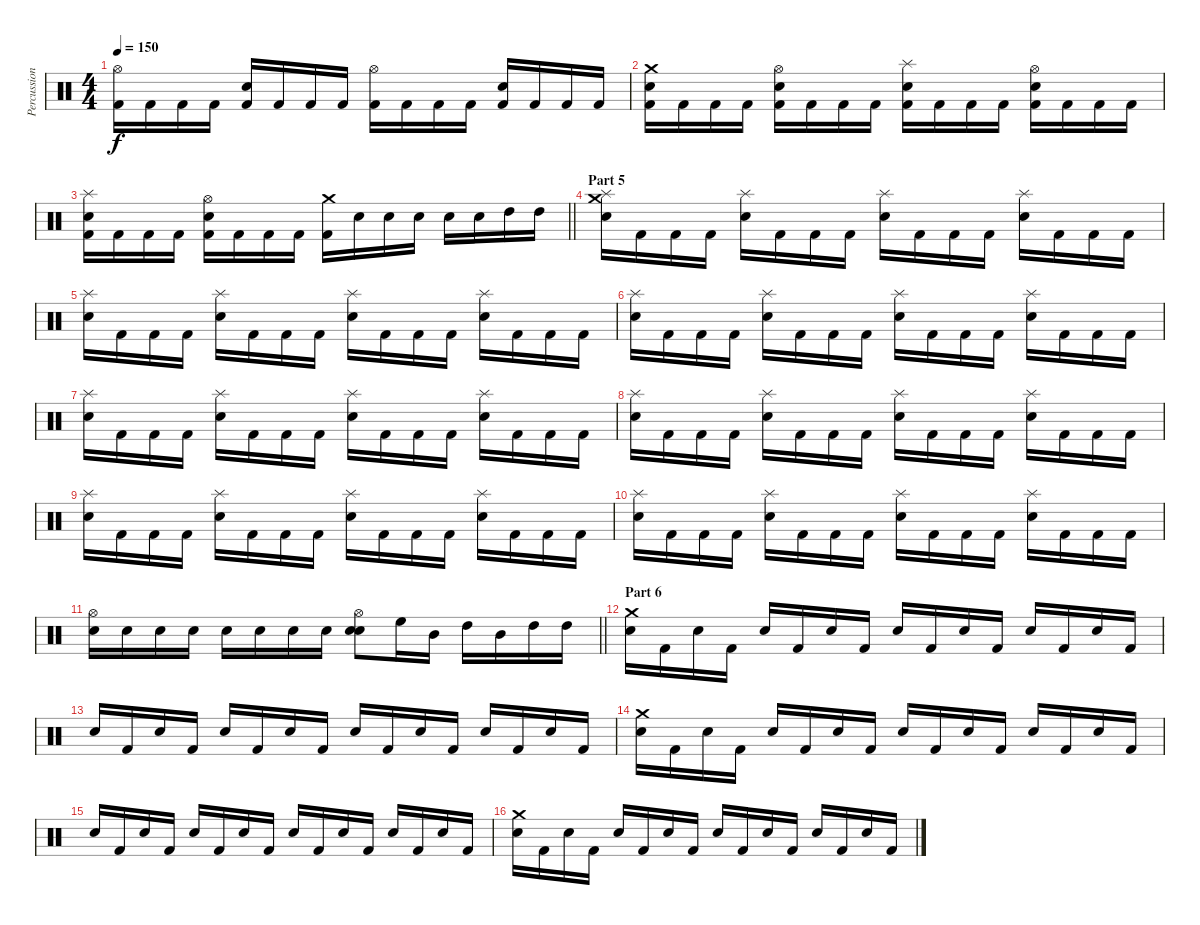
\track ("Percussion" "Percussion") {instrument percussion}
\staff {score}
\articulation defaults
\ts (4 4)
\tempo 150
\clef neutral
\ks c
("Hi-Hat (open)" "Kick (hit) 2").16{dy f} "Kick (hit) 2".16 "Kick (hit) 2".16 "Kick (hit) 2".16 ("Snare (hit) 2" "Kick (hit) 2").16 "Kick (hit) 2".16 "Kick (hit) 2".16 "Kick (hit) 2".16 ("Hi-Hat (open)" "Kick (hit) 2").16 "Kick (hit) 2".16 "Kick (hit) 2".16 "Kick (hit) 2".16 ("Snare (hit) 2" "Kick (hit) 2").16 "Kick (hit) 2".16 "Kick (hit) 2".16 "Kick (hit) 2".16 |
("Crash medium (hit)" "Snare (hit) 2" "Kick (hit) 2").16 "Kick (hit) 2".16 "Kick (hit) 2".16 "Kick (hit) 2".16 ("Hi-Hat (open)" "Snare (hit) 2" "Kick (hit) 2").16 "Kick (hit) 2".16 "Kick (hit) 2".16 "Kick (hit) 2".16 ("Splash (hit)" "Snare (hit) 2" "Kick (hit) 2").16 "Kick (hit) 2".16 "Kick (hit) 2".16 "Kick (hit) 2".16 ("Hi-Hat (open)" "Snare (hit) 2" "Kick (hit) 2").16 "Kick (hit) 2".16 "Kick (hit) 2".16 "Kick (hit) 2".16 |
\barLineRight lightlight
("Splash (hit)" "Snare (hit) 2" "Kick (hit) 2").16 "Kick (hit) 2".16 "Kick (hit) 2".16 "Kick (hit) 2".16 ("Hi-Hat (open)" "Snare (hit) 2" "Kick (hit) 2").16 "Kick (hit) 2".16 "Kick (hit) 2".16 "Kick (hit) 2".16 ("Crash medium (hit)" "Kick (hit) 2").16 "Electric Snare (hit)".16 "Electric Snare (hit)".16 "Electric Snare (hit)".16 "Snare (hit)".16 "Electric Snare (hit)".16 "High Tom (hit)".16 "High Tom (hit)".16 |
\section ("" "Part 5")
("Crash medium (hit)" "Splash (hit)" "Snare (hit) 2").16 "Kick (hit) 2".16 "Kick (hit) 2".16 "Kick (hit) 2".16 ("Splash (hit)" "Snare (hit) 2").16 "Kick (hit) 2".16 "Kick (hit) 2".16 "Kick (hit) 2".16 ("Splash (hit)" "Snare (hit) 2").16 "Kick (hit) 2".16 "Kick (hit) 2".16 "Kick (hit) 2".16 ("Splash (hit)" "Snare (hit) 2").16 "Kick (hit) 2".16 "Kick (hit) 2".16 "Kick (hit) 2".16 |
("Splash (hit)" "Snare (hit) 2").16 "Kick (hit) 2".16 "Kick (hit) 2".16 "Kick (hit) 2".16 ("Splash (hit)" "Snare (hit) 2").16 "Kick (hit) 2".16 "Kick (hit) 2".16 "Kick (hit) 2".16 ("Splash (hit)" "Snare (hit) 2").16 "Kick (hit) 2".16 "Kick (hit) 2".16 "Kick (hit) 2".16 ("Splash (hit)" "Snare (hit) 2").16 "Kick (hit) 2".16 "Kick (hit) 2".16 "Kick (hit) 2".16 |
("Splash (hit)" "Snare (hit) 2").16 "Kick (hit) 2".16 "Kick (hit) 2".16 "Kick (hit) 2".16 ("Splash (hit)" "Snare (hit) 2").16 "Kick (hit) 2".16 "Kick (hit) 2".16 "Kick (hit) 2".16 ("Splash (hit)" "Snare (hit) 2").16 "Kick (hit) 2".16 "Kick (hit) 2".16 "Kick (hit) 2".16 ("Splash (hit)" "Snare (hit) 2").16 "Kick (hit) 2".16 "Kick (hit) 2".16 "Kick (hit) 2".16 |
("Splash (hit)" "Snare (hit) 2").16 "Kick (hit) 2".16 "Kick (hit) 2".16 "Kick (hit) 2".16 ("Splash (hit)" "Snare (hit) 2").16 "Kick (hit) 2".16 "Kick (hit) 2".16 "Kick (hit) 2".16 ("Splash (hit)" "Snare (hit) 2").16 "Kick (hit) 2".16 "Kick (hit) 2".16 "Kick (hit) 2".16 ("Splash (hit)" "Snare (hit) 2").16 "Kick (hit) 2".16 "Kick (hit) 2".16 "Kick (hit) 2".16 |
("Splash (hit)" "Snare (hit) 2").16 "Kick (hit) 2".16 "Kick (hit) 2".16 "Kick (hit) 2".16 ("Splash (hit)" "Snare (hit) 2").16 "Kick (hit) 2".16 "Kick (hit) 2".16 "Kick (hit) 2".16 ("Splash (hit)" "Snare (hit) 2").16 "Kick (hit) 2".16 "Kick (hit) 2".16 "Kick (hit) 2".16 ("Splash (hit)" "Snare (hit) 2").16 "Kick (hit) 2".16 "Kick (hit) 2".16 "Kick (hit) 2".16 |
("Splash (hit)" "Snare (hit) 2").16 "Kick (hit) 2".16 "Kick (hit) 2".16 "Kick (hit) 2".16 ("Splash (hit)" "Snare (hit) 2").16 "Kick (hit) 2".16 "Kick (hit) 2".16 "Kick (hit) 2".16 ("Splash (hit)" "Snare (hit) 2").16 "Kick (hit) 2".16 "Kick (hit) 2".16 "Kick (hit) 2".16 ("Splash (hit)" "Snare (hit) 2").16 "Kick (hit) 2".16 "Kick (hit) 2".16 "Kick (hit) 2".16 |
("Splash (hit)" "Snare (hit) 2").16 "Kick (hit) 2".16 "Kick (hit) 2".16 "Kick (hit) 2".16 ("Splash (hit)" "Snare (hit) 2").16 "Kick (hit) 2".16 "Kick (hit) 2".16 "Kick (hit) 2".16 ("Splash (hit)" "Snare (hit) 2").16 "Kick (hit) 2".16 "Kick (hit) 2".16 "Kick (hit) 2".16 ("Splash (hit)" "Snare (hit) 2").16 "Kick (hit) 2".16 "Kick (hit) 2".16 "Kick (hit) 2".16 |
\barLineRight lightlight
("Hi-Hat (open)" "Snare (hit) 2").16 "Snare (hit) 2".16 "Snare (hit) 2".16 "Snare (hit) 2".16 "Snare (hit) 2".16 "Snare (hit) 2".16 "Snare (hit) 2".16 "Snare (hit) 2".16 ("Hi-Hat (open)" "Snare (hit) 2" "Electric Snare (hit)").8 "High Floor Tom (hit)".16 "Mid Tom (hit)".16 "High Tom (hit)".16 "Mid Tom (hit)".16 "High Tom (hit)".16 "High Tom (hit)".16 |
\section ("" "Part 6")
("Crash medium (hit)" "Snare (hit) 2").16 "Kick (hit) 2".16 "Snare (hit) 2".16 "Kick (hit) 2".16 "Snare (hit) 2".16 "Kick (hit) 2".16 "Snare (hit) 2".16 "Kick (hit) 2".16 "Snare (hit) 2".16 "Kick (hit) 2".16 "Snare (hit) 2".16 "Kick (hit) 2".16 "Snare (hit) 2".16 "Kick (hit) 2".16 "Snare (hit) 2".16 "Kick (hit) 2".16 |
"Snare (hit) 2".16 "Kick (hit) 2".16 "Snare (hit) 2".16 "Kick (hit) 2".16 "Snare (hit) 2".16 "Kick (hit) 2".16 "Snare (hit) 2".16 "Kick (hit) 2".16 "Snare (hit) 2".16 "Kick (hit) 2".16 "Snare (hit) 2".16 "Kick (hit) 2".16 "Snare (hit) 2".16 "Kick (hit) 2".16 "Snare (hit) 2".16 "Kick (hit) 2".16 |
("Crash medium (hit)" "Snare (hit) 2").16 "Kick (hit) 2".16 "Snare (hit) 2".16 "Kick (hit) 2".16 "Snare (hit) 2".16 "Kick (hit) 2".16 "Snare (hit) 2".16 "Kick (hit) 2".16 "Snare (hit) 2".16 "Kick (hit) 2".16 "Snare (hit) 2".16 "Kick (hit) 2".16 "Snare (hit) 2".16 "Kick (hit) 2".16 "Snare (hit) 2".16 "Kick (hit) 2".16 |
"Snare (hit) 2".16 "Kick (hit) 2".16 "Snare (hit) 2".16 "Kick (hit) 2".16 "Snare (hit) 2".16 "Kick (hit) 2".16 "Snare (hit) 2".16 "Kick (hit) 2".16 "Snare (hit) 2".16 "Kick (hit) 2".16 "Snare (hit) 2".16 "Kick (hit) 2".16 "Snare (hit) 2".16 "Kick (hit) 2".16 "Snare (hit) 2".16 "Kick (hit) 2".16 |
("Crash medium (hit)" "Snare (hit) 2").16 "Kick (hit) 2".16 "Snare (hit) 2".16 "Kick (hit) 2".16 "Snare (hit) 2".16 "Kick (hit) 2".16 "Snare (hit) 2".16 "Kick (hit) 2".16 "Snare (hit) 2".16 "Kick (hit) 2".16 "Snare (hit) 2".16 "Kick (hit) 2".16 "Snare (hit) 2".16 "Kick (hit) 2".16 "Snare (hit) 2".16 "Kick (hit) 2".16
